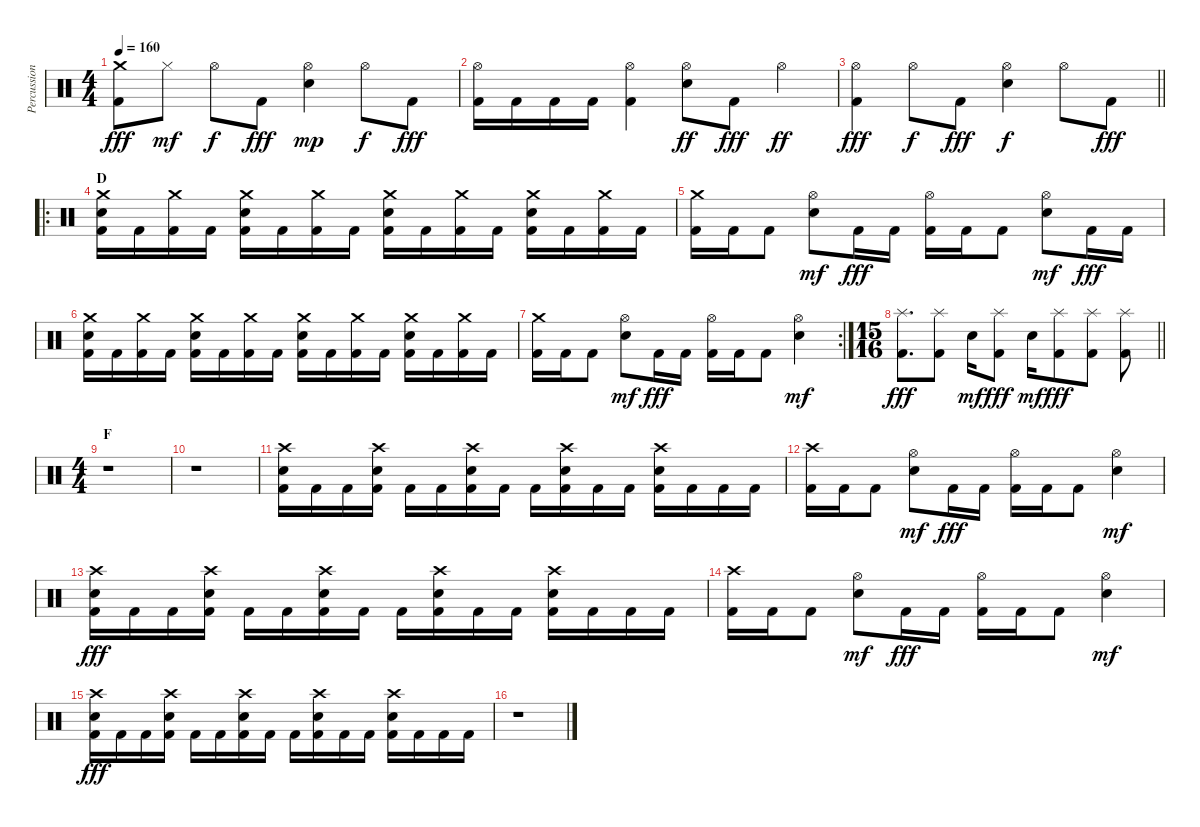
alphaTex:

\track ("Percussion" "Percussion") {instrument percussion}
\staff {score}
\articulation defaults
\ts (4 4)
\tempo 160
\clef neutral
\ks c
("Crash medium (hit)" "Kick (hit) 2").8{dy fff} "Hi-Hat (closed)".8{dy mf} "Hi-Hat (open)".8{dy f} "Kick (hit) 2".8{dy fff} ("Hi-Hat (open)" "Electric Snare (hit)").4{dy mp} "Hi-Hat (open)".8{dy f} "Kick (hit) 2".8{dy fff} |
("Hi-Hat (open)" "Kick (hit) 2").16 "Kick (hit) 2".16 "Kick (hit) 2".16 "Kick (hit) 2".16 ("Hi-Hat (open)" "Kick (hit) 2").4 ("Hi-Hat (open)" "Electric Snare (hit)").8{dy ff} "Kick (hit) 2".8{dy fff} "Hi-Hat (open)".4{dy ff} |
\barLineRight lightlight
("Hi-Hat (open)" "Kick (hit) 2").4{dy fff} "Hi-Hat (open)".8{dy f} "Kick (hit) 2".8{dy fff} ("Hi-Hat (open)" "Electric Snare (hit)").4{dy f} "Hi-Hat (open)".8 "Kick (hit) 2".8{dy fff} |
\ro
\section ("" "D")
("Crash medium (hit)" "Electric Snare (hit)" "Kick (hit) 2").16 "Kick (hit) 2".16 ("Crash medium (hit)" "Kick (hit) 2").16 "Kick (hit) 2".16 ("Crash medium (hit)" "Electric Snare (hit)" "Kick (hit) 2").16 "Kick (hit) 2".16 ("Crash medium (hit)" "Kick (hit) 2").16 "Kick (hit) 2".16 ("Crash medium (hit)" "Electric Snare (hit)" "Kick (hit) 2").16 "Kick (hit) 2".16 ("Crash medium (hit)" "Kick (hit) 2").16 "Kick (hit) 2".16 ("Crash medium (hit)" "Electric Snare (hit)" "Kick (hit) 2").16 "Kick (hit) 2".16 ("Crash medium (hit)" "Kick (hit) 2").16 "Kick (hit) 2".16 |
("Crash medium (hit)" "Kick (hit) 2").16 "Kick (hit) 2".16 "Kick (hit) 2".8 ("Hi-Hat (open)" "Electric Snare (hit)").8{dy mf} "Kick (hit) 2".16{dy fff} "Kick (hit) 2".16 ("Hi-Hat (open)" "Kick (hit) 2").16 "Kick (hit) 2".16 "Kick (hit) 2".8 ("Hi-Hat (open)" "Electric Snare (hit)").8{dy mf} "Kick (hit) 2".16{dy fff} "Kick (hit) 2".16 |
("Crash medium (hit)" "Electric Snare (hit)" "Kick (hit) 2").16 "Kick (hit) 2".16 ("Crash medium (hit)" "Kick (hit) 2").16 "Kick (hit) 2".16 ("Crash medium (hit)" "Electric Snare (hit)" "Kick (hit) 2").16 "Kick (hit) 2".16 ("Crash medium (hit)" "Kick (hit) 2").16 "Kick (hit) 2".16 ("Crash medium (hit)" "Electric Snare (hit)" "Kick (hit) 2").16 "Kick (hit) 2".16 ("Crash medium (hit)" "Kick (hit) 2").16 "Kick (hit) 2".16 ("Crash medium (hit)" "Electric Snare (hit)" "Kick (hit) 2").16 "Kick (hit) 2".16 ("Crash medium (hit)" "Kick (hit) 2").16 "Kick (hit) 2".16 |
\rc 2
("Crash medium (hit)" "Kick (hit) 2").16 "Kick (hit) 2".16 "Kick (hit) 2".8 ("Hi-Hat (open)" "Electric Snare (hit)").8{dy mf} "Kick (hit) 2".16{dy fff} "Kick (hit) 2".16 ("Hi-Hat (open)" "Kick (hit) 2").16 "Kick (hit) 2".16 "Kick (hit) 2".8 ("Hi-Hat (open)" "Electric Snare (hit)").4{dy mf} |
\ts (15 16)
\barLineRight lightlight
("Splash (hit)" "Kick (hit) 2").8{d dy fff} ("Splash (hit)" "Kick (hit) 2").8 "Electric Snare (hit)".16{dy mf} ("Splash (hit)" "Kick (hit) 2").8{dy fff} "Electric Snare (hit)".16{dy mf} ("Splash (hit)" "Kick (hit) 2").8{dy fff} ("Splash (hit)" "Kick (hit) 2").8 ("Splash (hit)" "Kick (hit) 2").8 |
\ts (4 4)
\section ("" "F")
r.1 |
r.1 |
("Crash high (hit)" "Electric Snare (hit)" "Kick (hit) 2").16 "Kick (hit) 2".16 "Kick (hit) 2".16 ("Crash high (hit)" "Electric Snare (hit)" "Kick (hit) 2").16 "Kick (hit) 2".16 "Kick (hit) 2".16 ("Crash high (hit)" "Electric Snare (hit)" "Kick (hit) 2").16 "Kick (hit) 2".16 "Kick (hit) 2".16 ("Crash high (hit)" "Electric Snare (hit)" "Kick (hit) 2").16 "Kick (hit) 2".16 "Kick (hit) 2".16 ("Crash high (hit)" "Electric Snare (hit)" "Kick (hit) 2").16 "Kick (hit) 2".16 "Kick (hit) 2".16 "Kick (hit) 2".16 |
("Crash high (hit)" "Kick (hit) 2").16 "Kick (hit) 2".16 "Kick (hit) 2".8 ("Hi-Hat (open)" "Electric Snare (hit)").8{dy mf} "Kick (hit) 2".16{dy fff} "Kick (hit) 2".16 ("Hi-Hat (open)" "Kick (hit) 2").16 "Kick (hit) 2".16 "Kick (hit) 2".8 ("Hi-Hat (open)" "Electric Snare (hit)").4{dy mf} |
("Crash high (hit)" "Electric Snare (hit)" "Kick (hit) 2").16{dy fff} "Kick (hit) 2".16 "Kick (hit) 2".16 ("Crash high (hit)" "Electric Snare (hit)" "Kick (hit) 2").16 "Kick (hit) 2".16 "Kick (hit) 2".16 ("Crash high (hit)" "Electric Snare (hit)" "Kick (hit) 2").16 "Kick (hit) 2".16 "Kick (hit) 2".16 ("Crash high (hit)" "Electric Snare (hit)" "Kick (hit) 2").16 "Kick (hit) 2".16 "Kick (hit) 2".16 ("Crash high (hit)" "Electric Snare (hit)" "Kick (hit) 2").16 "Kick (hit) 2".16 "Kick (hit) 2".16 "Kick (hit) 2".16 |
("Crash high (hit)" "Kick (hit) 2").16 "Kick (hit) 2".16 "Kick (hit) 2".8 ("Hi-Hat (open)" "Electric Snare (hit)").8{dy mf} "Kick (hit) 2".16{dy fff} "Kick (hit) 2".16 ("Hi-Hat (open)" "Kick (hit) 2").16 "Kick (hit) 2".16 "Kick (hit) 2".8 ("Hi-Hat (open)" "Electric Snare (hit)").4{dy mf} |
("Crash high (hit)" "Electric Snare (hit)" "Kick (hit) 2").16{dy fff} "Kick (hit) 2".16 "Kick (hit) 2".16 ("Crash high (hit)" "Electric Snare (hit)" "Kick (hit) 2").16 "Kick (hit) 2".16 "Kick (hit) 2".16 ("Crash high (hit)" "Electric Snare (hit)" "Kick (hit) 2").16 "Kick (hit) 2".16 "Kick (hit) 2".16 ("Crash high (hit)" "Electric Snare (hit)" "Kick (hit) 2").16 "Kick (hit) 2".16 "Kick (hit) 2".16 ("Crash high (hit)" "Electric Snare (hit)" "Kick (hit) 2").16 "Kick (hit) 2".16 "Kick (hit) 2".16 "Kick (hit) 2".16 |
r.1
